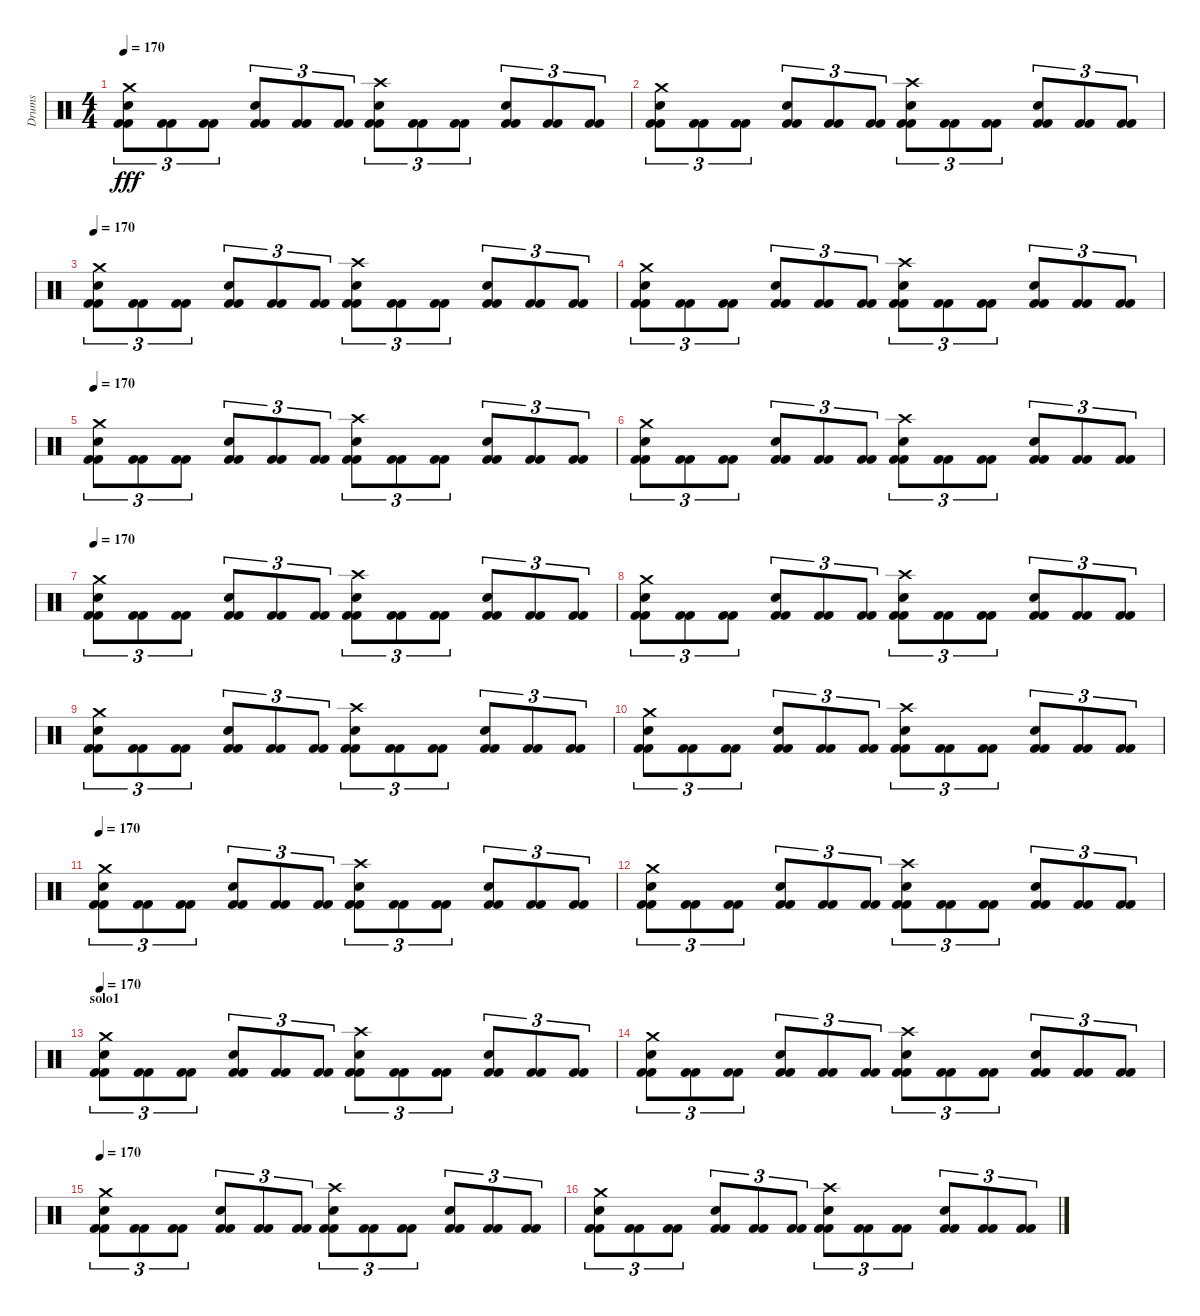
\track ("Drums" "Drums") {instrument percussion}
\staff {score}
\articulation defaults
\ts (4 4)
\tempo 170
\clef neutral
\ks c
("Crash medium (hit)" "Electric Snare (hit)" "Kick (hit) 2" "Kick (hit) 2").8{tu (3 2) dy fff} ("Kick (hit) 2" "Kick (hit) 2").8{tu (3 2)} ("Kick (hit) 2" "Kick (hit) 2").8{tu (3 2)} ("Electric Snare (hit)" "Kick (hit) 2" "Kick (hit) 2").8{tu (3 2)} ("Kick (hit) 2" "Kick (hit) 2").8{tu (3 2)} ("Kick (hit) 2" "Kick (hit) 2").8{tu (3 2)} ("Crash high (hit)" "Electric Snare (hit)" "Kick (hit) 2" "Kick (hit) 2").8{tu (3 2)} ("Kick (hit) 2" "Kick (hit) 2").8{tu (3 2)} ("Kick (hit) 2" "Kick (hit) 2").8{tu (3 2)} ("Electric Snare (hit)" "Kick (hit) 2" "Kick (hit) 2").8{tu (3 2)} ("Kick (hit) 2" "Kick (hit) 2").8{tu (3 2)} ("Kick (hit) 2" "Kick (hit) 2").8{tu (3 2)} |
("Crash medium (hit)" "Electric Snare (hit)" "Kick (hit) 2" "Kick (hit) 2").8{tu (3 2)} ("Kick (hit) 2" "Kick (hit) 2").8{tu (3 2)} ("Kick (hit) 2" "Kick (hit) 2").8{tu (3 2)} ("Electric Snare (hit)" "Kick (hit) 2" "Kick (hit) 2").8{tu (3 2)} ("Kick (hit) 2" "Kick (hit) 2").8{tu (3 2)} ("Kick (hit) 2" "Kick (hit) 2").8{tu (3 2)} ("Crash high (hit)" "Electric Snare (hit)" "Kick (hit) 2" "Kick (hit) 2").8{tu (3 2)} ("Kick (hit) 2" "Kick (hit) 2").8{tu (3 2)} ("Kick (hit) 2" "Kick (hit) 2").8{tu (3 2)} ("Electric Snare (hit)" "Kick (hit) 2" "Kick (hit) 2").8{tu (3 2)} ("Kick (hit) 2" "Kick (hit) 2").8{tu (3 2)} ("Kick (hit) 2" "Kick (hit) 2").8{tu (3 2)} |
\tempo 170
("Crash medium (hit)" "Electric Snare (hit)" "Kick (hit) 2" "Kick (hit) 2").8{tu (3 2)} ("Kick (hit) 2" "Kick (hit) 2").8{tu (3 2)} ("Kick (hit) 2" "Kick (hit) 2").8{tu (3 2)} ("Electric Snare (hit)" "Kick (hit) 2" "Kick (hit) 2").8{tu (3 2)} ("Kick (hit) 2" "Kick (hit) 2").8{tu (3 2)} ("Kick (hit) 2" "Kick (hit) 2").8{tu (3 2)} ("Crash high (hit)" "Electric Snare (hit)" "Kick (hit) 2" "Kick (hit) 2").8{tu (3 2)} ("Kick (hit) 2" "Kick (hit) 2").8{tu (3 2)} ("Kick (hit) 2" "Kick (hit) 2").8{tu (3 2)} ("Electric Snare (hit)" "Kick (hit) 2" "Kick (hit) 2").8{tu (3 2)} ("Kick (hit) 2" "Kick (hit) 2").8{tu (3 2)} ("Kick (hit) 2" "Kick (hit) 2").8{tu (3 2)} |
("Crash medium (hit)" "Electric Snare (hit)" "Kick (hit) 2" "Kick (hit) 2").8{tu (3 2)} ("Kick (hit) 2" "Kick (hit) 2").8{tu (3 2)} ("Kick (hit) 2" "Kick (hit) 2").8{tu (3 2)} ("Electric Snare (hit)" "Kick (hit) 2" "Kick (hit) 2").8{tu (3 2)} ("Kick (hit) 2" "Kick (hit) 2").8{tu (3 2)} ("Kick (hit) 2" "Kick (hit) 2").8{tu (3 2)} ("Crash high (hit)" "Electric Snare (hit)" "Kick (hit) 2" "Kick (hit) 2").8{tu (3 2)} ("Kick (hit) 2" "Kick (hit) 2").8{tu (3 2)} ("Kick (hit) 2" "Kick (hit) 2").8{tu (3 2)} ("Electric Snare (hit)" "Kick (hit) 2" "Kick (hit) 2").8{tu (3 2)} ("Kick (hit) 2" "Kick (hit) 2").8{tu (3 2)} ("Kick (hit) 2" "Kick (hit) 2").8{tu (3 2)} |
\tempo 170
("Crash medium (hit)" "Electric Snare (hit)" "Kick (hit) 2" "Kick (hit) 2").8{tu (3 2)} ("Kick (hit) 2" "Kick (hit) 2").8{tu (3 2)} ("Kick (hit) 2" "Kick (hit) 2").8{tu (3 2)} ("Electric Snare (hit)" "Kick (hit) 2" "Kick (hit) 2").8{tu (3 2)} ("Kick (hit) 2" "Kick (hit) 2").8{tu (3 2)} ("Kick (hit) 2" "Kick (hit) 2").8{tu (3 2)} ("Crash high (hit)" "Electric Snare (hit)" "Kick (hit) 2" "Kick (hit) 2").8{tu (3 2)} ("Kick (hit) 2" "Kick (hit) 2").8{tu (3 2)} ("Kick (hit) 2" "Kick (hit) 2").8{tu (3 2)} ("Electric Snare (hit)" "Kick (hit) 2" "Kick (hit) 2").8{tu (3 2)} ("Kick (hit) 2" "Kick (hit) 2").8{tu (3 2)} ("Kick (hit) 2" "Kick (hit) 2").8{tu (3 2)} |
("Crash medium (hit)" "Electric Snare (hit)" "Kick (hit) 2" "Kick (hit) 2").8{tu (3 2)} ("Kick (hit) 2" "Kick (hit) 2").8{tu (3 2)} ("Kick (hit) 2" "Kick (hit) 2").8{tu (3 2)} ("Electric Snare (hit)" "Kick (hit) 2" "Kick (hit) 2").8{tu (3 2)} ("Kick (hit) 2" "Kick (hit) 2").8{tu (3 2)} ("Kick (hit) 2" "Kick (hit) 2").8{tu (3 2)} ("Crash high (hit)" "Electric Snare (hit)" "Kick (hit) 2" "Kick (hit) 2").8{tu (3 2)} ("Kick (hit) 2" "Kick (hit) 2").8{tu (3 2)} ("Kick (hit) 2" "Kick (hit) 2").8{tu (3 2)} ("Electric Snare (hit)" "Kick (hit) 2" "Kick (hit) 2").8{tu (3 2)} ("Kick (hit) 2" "Kick (hit) 2").8{tu (3 2)} ("Kick (hit) 2" "Kick (hit) 2").8{tu (3 2)} |
\tempo 170
("Crash medium (hit)" "Electric Snare (hit)" "Kick (hit) 2" "Kick (hit) 2").8{tu (3 2)} ("Kick (hit) 2" "Kick (hit) 2").8{tu (3 2)} ("Kick (hit) 2" "Kick (hit) 2").8{tu (3 2)} ("Electric Snare (hit)" "Kick (hit) 2" "Kick (hit) 2").8{tu (3 2)} ("Kick (hit) 2" "Kick (hit) 2").8{tu (3 2)} ("Kick (hit) 2" "Kick (hit) 2").8{tu (3 2)} ("Crash high (hit)" "Electric Snare (hit)" "Kick (hit) 2" "Kick (hit) 2").8{tu (3 2)} ("Kick (hit) 2" "Kick (hit) 2").8{tu (3 2)} ("Kick (hit) 2" "Kick (hit) 2").8{tu (3 2)} ("Electric Snare (hit)" "Kick (hit) 2" "Kick (hit) 2").8{tu (3 2)} ("Kick (hit) 2" "Kick (hit) 2").8{tu (3 2)} ("Kick (hit) 2" "Kick (hit) 2").8{tu (3 2)} |
("Crash medium (hit)" "Electric Snare (hit)" "Kick (hit) 2" "Kick (hit) 2").8{tu (3 2)} ("Kick (hit) 2" "Kick (hit) 2").8{tu (3 2)} ("Kick (hit) 2" "Kick (hit) 2").8{tu (3 2)} ("Electric Snare (hit)" "Kick (hit) 2" "Kick (hit) 2").8{tu (3 2)} ("Kick (hit) 2" "Kick (hit) 2").8{tu (3 2)} ("Kick (hit) 2" "Kick (hit) 2").8{tu (3 2)} ("Crash high (hit)" "Electric Snare (hit)" "Kick (hit) 2" "Kick (hit) 2").8{tu (3 2)} ("Kick (hit) 2" "Kick (hit) 2").8{tu (3 2)} ("Kick (hit) 2" "Kick (hit) 2").8{tu (3 2)} ("Electric Snare (hit)" "Kick (hit) 2" "Kick (hit) 2").8{tu (3 2)} ("Kick (hit) 2" "Kick (hit) 2").8{tu (3 2)} ("Kick (hit) 2" "Kick (hit) 2").8{tu (3 2)} |
("Crash medium (hit)" "Electric Snare (hit)" "Kick (hit) 2" "Kick (hit) 2").8{tu (3 2)} ("Kick (hit) 2" "Kick (hit) 2").8{tu (3 2)} ("Kick (hit) 2" "Kick (hit) 2").8{tu (3 2)} ("Electric Snare (hit)" "Kick (hit) 2" "Kick (hit) 2").8{tu (3 2)} ("Kick (hit) 2" "Kick (hit) 2").8{tu (3 2)} ("Kick (hit) 2" "Kick (hit) 2").8{tu (3 2)} ("Crash high (hit)" "Electric Snare (hit)" "Kick (hit) 2" "Kick (hit) 2").8{tu (3 2)} ("Kick (hit) 2" "Kick (hit) 2").8{tu (3 2)} ("Kick (hit) 2" "Kick (hit) 2").8{tu (3 2)} ("Electric Snare (hit)" "Kick (hit) 2" "Kick (hit) 2").8{tu (3 2)} ("Kick (hit) 2" "Kick (hit) 2").8{tu (3 2)} ("Kick (hit) 2" "Kick (hit) 2").8{tu (3 2)} |
("Crash medium (hit)" "Electric Snare (hit)" "Kick (hit) 2" "Kick (hit) 2").8{tu (3 2)} ("Kick (hit) 2" "Kick (hit) 2").8{tu (3 2)} ("Kick (hit) 2" "Kick (hit) 2").8{tu (3 2)} ("Electric Snare (hit)" "Kick (hit) 2" "Kick (hit) 2").8{tu (3 2)} ("Kick (hit) 2" "Kick (hit) 2").8{tu (3 2)} ("Kick (hit) 2" "Kick (hit) 2").8{tu (3 2)} ("Crash high (hit)" "Electric Snare (hit)" "Kick (hit) 2" "Kick (hit) 2").8{tu (3 2)} ("Kick (hit) 2" "Kick (hit) 2").8{tu (3 2)} ("Kick (hit) 2" "Kick (hit) 2").8{tu (3 2)} ("Electric Snare (hit)" "Kick (hit) 2" "Kick (hit) 2").8{tu (3 2)} ("Kick (hit) 2" "Kick (hit) 2").8{tu (3 2)} ("Kick (hit) 2" "Kick (hit) 2").8{tu (3 2)} |
\tempo 170
("Crash medium (hit)" "Electric Snare (hit)" "Kick (hit) 2" "Kick (hit) 2").8{tu (3 2)} ("Kick (hit) 2" "Kick (hit) 2").8{tu (3 2)} ("Kick (hit) 2" "Kick (hit) 2").8{tu (3 2)} ("Electric Snare (hit)" "Kick (hit) 2" "Kick (hit) 2").8{tu (3 2)} ("Kick (hit) 2" "Kick (hit) 2").8{tu (3 2)} ("Kick (hit) 2" "Kick (hit) 2").8{tu (3 2)} ("Crash high (hit)" "Electric Snare (hit)" "Kick (hit) 2" "Kick (hit) 2").8{tu (3 2)} ("Kick (hit) 2" "Kick (hit) 2").8{tu (3 2)} ("Kick (hit) 2" "Kick (hit) 2").8{tu (3 2)} ("Electric Snare (hit)" "Kick (hit) 2" "Kick (hit) 2").8{tu (3 2)} ("Kick (hit) 2" "Kick (hit) 2").8{tu (3 2)} ("Kick (hit) 2" "Kick (hit) 2").8{tu (3 2)} |
("Crash medium (hit)" "Electric Snare (hit)" "Kick (hit) 2" "Kick (hit) 2").8{tu (3 2)} ("Kick (hit) 2" "Kick (hit) 2").8{tu (3 2)} ("Kick (hit) 2" "Kick (hit) 2").8{tu (3 2)} ("Electric Snare (hit)" "Kick (hit) 2" "Kick (hit) 2").8{tu (3 2)} ("Kick (hit) 2" "Kick (hit) 2").8{tu (3 2)} ("Kick (hit) 2" "Kick (hit) 2").8{tu (3 2)} ("Crash high (hit)" "Electric Snare (hit)" "Kick (hit) 2" "Kick (hit) 2").8{tu (3 2)} ("Kick (hit) 2" "Kick (hit) 2").8{tu (3 2)} ("Kick (hit) 2" "Kick (hit) 2").8{tu (3 2)} ("Electric Snare (hit)" "Kick (hit) 2" "Kick (hit) 2").8{tu (3 2)} ("Kick (hit) 2" "Kick (hit) 2").8{tu (3 2)} ("Kick (hit) 2" "Kick (hit) 2").8{tu (3 2)} |
\section ("" "solo1")
\tempo 170
("Crash medium (hit)" "Electric Snare (hit)" "Kick (hit) 2" "Kick (hit) 2").8{tu (3 2)} ("Kick (hit) 2" "Kick (hit) 2").8{tu (3 2)} ("Kick (hit) 2" "Kick (hit) 2").8{tu (3 2)} ("Electric Snare (hit)" "Kick (hit) 2" "Kick (hit) 2").8{tu (3 2)} ("Kick (hit) 2" "Kick (hit) 2").8{tu (3 2)} ("Kick (hit) 2" "Kick (hit) 2").8{tu (3 2)} ("Crash high (hit)" "Electric Snare (hit)" "Kick (hit) 2" "Kick (hit) 2").8{tu (3 2)} ("Kick (hit) 2" "Kick (hit) 2").8{tu (3 2)} ("Kick (hit) 2" "Kick (hit) 2").8{tu (3 2)} ("Electric Snare (hit)" "Kick (hit) 2" "Kick (hit) 2").8{tu (3 2)} ("Kick (hit) 2" "Kick (hit) 2").8{tu (3 2)} ("Kick (hit) 2" "Kick (hit) 2").8{tu (3 2)} |
("Crash medium (hit)" "Electric Snare (hit)" "Kick (hit) 2" "Kick (hit) 2").8{tu (3 2)} ("Kick (hit) 2" "Kick (hit) 2").8{tu (3 2)} ("Kick (hit) 2" "Kick (hit) 2").8{tu (3 2)} ("Electric Snare (hit)" "Kick (hit) 2" "Kick (hit) 2").8{tu (3 2)} ("Kick (hit) 2" "Kick (hit) 2").8{tu (3 2)} ("Kick (hit) 2" "Kick (hit) 2").8{tu (3 2)} ("Crash high (hit)" "Electric Snare (hit)" "Kick (hit) 2" "Kick (hit) 2").8{tu (3 2)} ("Kick (hit) 2" "Kick (hit) 2").8{tu (3 2)} ("Kick (hit) 2" "Kick (hit) 2").8{tu (3 2)} ("Electric Snare (hit)" "Kick (hit) 2" "Kick (hit) 2").8{tu (3 2)} ("Kick (hit) 2" "Kick (hit) 2").8{tu (3 2)} ("Kick (hit) 2" "Kick (hit) 2").8{tu (3 2)} |
\tempo 170
("Crash medium (hit)" "Electric Snare (hit)" "Kick (hit) 2" "Kick (hit) 2").8{tu (3 2)} ("Kick (hit) 2" "Kick (hit) 2").8{tu (3 2)} ("Kick (hit) 2" "Kick (hit) 2").8{tu (3 2)} ("Electric Snare (hit)" "Kick (hit) 2" "Kick (hit) 2").8{tu (3 2)} ("Kick (hit) 2" "Kick (hit) 2").8{tu (3 2)} ("Kick (hit) 2" "Kick (hit) 2").8{tu (3 2)} ("Crash high (hit)" "Electric Snare (hit)" "Kick (hit) 2" "Kick (hit) 2").8{tu (3 2)} ("Kick (hit) 2" "Kick (hit) 2").8{tu (3 2)} ("Kick (hit) 2" "Kick (hit) 2").8{tu (3 2)} ("Electric Snare (hit)" "Kick (hit) 2" "Kick (hit) 2").8{tu (3 2)} ("Kick (hit) 2" "Kick (hit) 2").8{tu (3 2)} ("Kick (hit) 2" "Kick (hit) 2").8{tu (3 2)} |
("Crash medium (hit)" "Electric Snare (hit)" "Kick (hit) 2" "Kick (hit) 2").8{tu (3 2)} ("Kick (hit) 2" "Kick (hit) 2").8{tu (3 2)} ("Kick (hit) 2" "Kick (hit) 2").8{tu (3 2)} ("Electric Snare (hit)" "Kick (hit) 2" "Kick (hit) 2").8{tu (3 2)} ("Kick (hit) 2" "Kick (hit) 2").8{tu (3 2)} ("Kick (hit) 2" "Kick (hit) 2").8{tu (3 2)} ("Crash high (hit)" "Electric Snare (hit)" "Kick (hit) 2" "Kick (hit) 2").8{tu (3 2)} ("Kick (hit) 2" "Kick (hit) 2").8{tu (3 2)} ("Kick (hit) 2" "Kick (hit) 2").8{tu (3 2)} ("Electric Snare (hit)" "Kick (hit) 2" "Kick (hit) 2").8{tu (3 2)} ("Kick (hit) 2" "Kick (hit) 2").8{tu (3 2)} ("Kick (hit) 2" "Kick (hit) 2").8{tu (3 2)}
